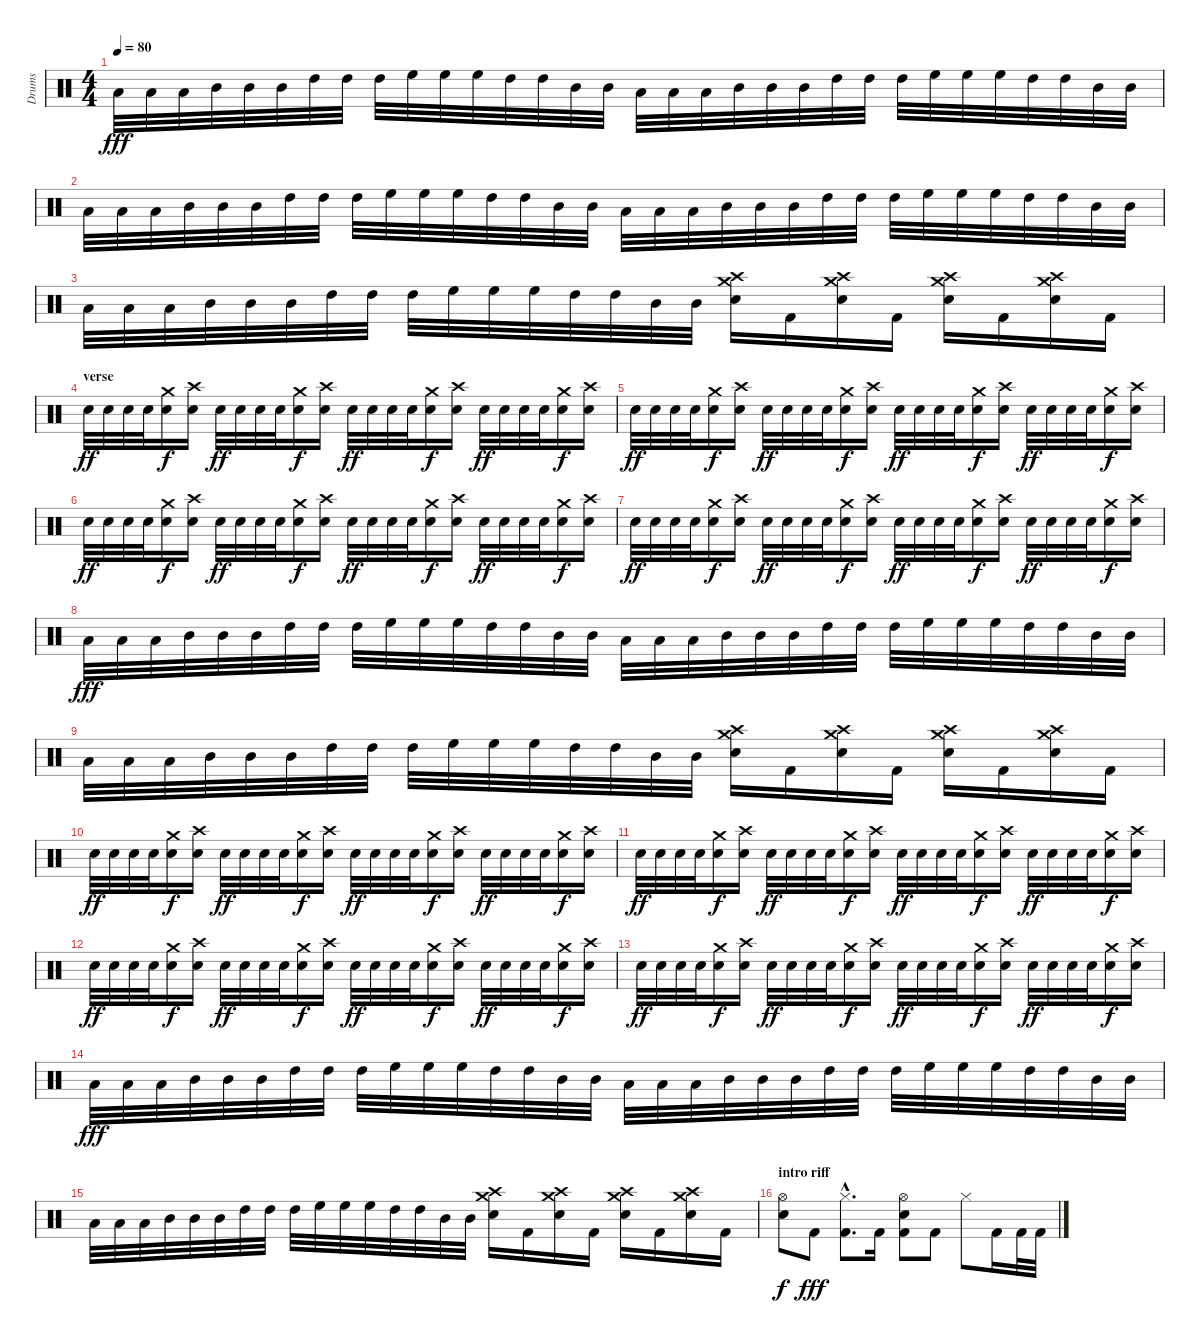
\track ("Drums" "Drums") {instrument percussion}
\staff {score}
\articulation defaults
\ts (4 4)
\tempo 80
\clef neutral
\ks c "Low Tom (hit)".32{dy fff} "Low Tom (hit)".32 "Low Tom (hit)".32 "Mid Tom (hit)".32 "Mid Tom (hit)".32 "Mid Tom (hit)".32 "High Tom (hit)".32 "High Tom (hit)".32 "High Tom (hit)".32 "High Floor Tom (hit)".32 "High Floor Tom (hit)".32 "High Floor Tom (hit)".32 "High Tom (hit)".32 "High Tom (hit)".32 "Mid Tom (hit)".32 "Mid Tom (hit)".32 "Low Tom (hit)".32 "Low Tom (hit)".32 "Low Tom (hit)".32 "Mid Tom (hit)".32 "Mid Tom (hit)".32 "Mid Tom (hit)".32 "High Tom (hit)".32 "High Tom (hit)".32 "High Tom (hit)".32 "High Floor Tom (hit)".32 "High Floor Tom (hit)".32 "High Floor Tom (hit)".32 "High Tom (hit)".32 "High Tom (hit)".32 "Mid Tom (hit)".32 "Mid Tom (hit)".32
|
"Low Tom (hit)".32 "Low Tom (hit)".32 "Low Tom (hit)".32 "Mid Tom (hit)".32 "Mid Tom (hit)".32 "Mid Tom (hit)".32 "High Tom (hit)".32 "High Tom (hit)".32 "High Tom (hit)".32 "High Floor Tom (hit)".32 "High Floor Tom (hit)".32 "High Floor Tom (hit)".32 "High Tom (hit)".32 "High Tom (hit)".32 "Mid Tom (hit)".32 "Mid Tom (hit)".32 "Low Tom (hit)".32 "Low Tom (hit)".32 "Low Tom (hit)".32 "Mid Tom (hit)".32 "Mid Tom (hit)".32 "Mid Tom (hit)".32 "High Tom (hit)".32 "High Tom (hit)".32 "High Tom (hit)".32 "High Floor Tom (hit)".32 "High Floor Tom (hit)".32 "High Floor Tom (hit)".32 "High Tom (hit)".32 "High Tom (hit)".32 "Mid Tom (hit)".32 "Mid Tom (hit)".32 |
"Low Tom (hit)".32 "Low Tom (hit)".32 "Low Tom (hit)".32 "Mid Tom (hit)".32 "Mid Tom (hit)".32 "Mid Tom (hit)".32 "High Tom (hit)".32 "High Tom (hit)".32 "High Tom (hit)".32 "High Floor Tom (hit)".32 "High Floor Tom (hit)".32 "High Floor Tom (hit)".32 "High Tom (hit)".32 "High Tom (hit)".32 "Mid Tom (hit)".32 "Mid Tom (hit)".32 ("Crash high (hit)" "Crash medium (hit)" "Electric Snare (hit)").16 "Kick (hit) 2".16 ("Crash high (hit)" "Crash medium (hit)" "Electric Snare (hit)").16 "Kick (hit) 2".16 ("Crash high (hit)" "Crash medium (hit)" "Electric Snare (hit)").16 "Kick (hit) 2".16 ("Crash high (hit)" "Crash medium (hit)" "Electric Snare (hit)").16 "Kick (hit) 2".16 |
\section ("" "verse")
"Electric Snare (hit)".32{dy ff} "Electric Snare (hit)".32 "Electric Snare (hit)".32 "Electric Snare (hit)".32 ("Snare (hit) 2" "Crash medium (hit)").16{dy f} ("Snare (hit) 2" "Crash high (hit)").16 "Electric Snare (hit)".32{dy ff} "Electric Snare (hit)".32 "Electric Snare (hit)".32 "Electric Snare (hit)".32 ("Snare (hit) 2" "Crash medium (hit)").16{dy f} ("Snare (hit) 2" "Crash high (hit)").16 "Electric Snare (hit)".32{dy ff} "Electric Snare (hit)".32 "Electric Snare (hit)".32 "Electric Snare (hit)".32 ("Snare (hit) 2" "Crash medium (hit)").16{dy f} ("Snare (hit) 2" "Crash high (hit)").16 "Electric Snare (hit)".32{dy ff} "Electric Snare (hit)".32 "Electric Snare (hit)".32 "Electric Snare (hit)".32 ("Snare (hit) 2" "Crash medium (hit)").16{dy f} ("Snare (hit) 2" "Crash high (hit)").16 |
"Electric Snare (hit)".32{dy ff} "Electric Snare (hit)".32 "Electric Snare (hit)".32 "Electric Snare (hit)".32 ("Snare (hit) 2" "Crash medium (hit)").16{dy f} ("Snare (hit) 2" "Crash high (hit)").16 "Electric Snare (hit)".32{dy ff} "Electric Snare (hit)".32 "Electric Snare (hit)".32 "Electric Snare (hit)".32 ("Snare (hit) 2" "Crash medium (hit)").16{dy f} ("Snare (hit) 2" "Crash high (hit)").16 "Electric Snare (hit)".32{dy ff} "Electric Snare (hit)".32 "Electric Snare (hit)".32 "Electric Snare (hit)".32 ("Snare (hit) 2" "Crash medium (hit)").16{dy f} ("Snare (hit) 2" "Crash high (hit)").16 "Electric Snare (hit)".32{dy ff} "Electric Snare (hit)".32 "Electric Snare (hit)".32 "Electric Snare (hit)".32 ("Snare (hit) 2" "Crash medium (hit)").16{dy f} ("Snare (hit) 2" "Crash high (hit)").16 |
"Electric Snare (hit)".32{dy ff} "Electric Snare (hit)".32 "Electric Snare (hit)".32 "Electric Snare (hit)".32 ("Snare (hit) 2" "Crash medium (hit)").16{dy f} ("Snare (hit) 2" "Crash high (hit)").16 "Electric Snare (hit)".32{dy ff} "Electric Snare (hit)".32 "Electric Snare (hit)".32 "Electric Snare (hit)".32 ("Snare (hit) 2" "Crash medium (hit)").16{dy f} ("Snare (hit) 2" "Crash high (hit)").16 "Electric Snare (hit)".32{dy ff} "Electric Snare (hit)".32 "Electric Snare (hit)".32 "Electric Snare (hit)".32 ("Snare (hit) 2" "Crash medium (hit)").16{dy f} ("Snare (hit) 2" "Crash high (hit)").16 "Electric Snare (hit)".32{dy ff} "Electric Snare (hit)".32 "Electric Snare (hit)".32 "Electric Snare (hit)".32 ("Snare (hit) 2" "Crash medium (hit)").16{dy f} ("Snare (hit) 2" "Crash high (hit)").16 |
"Electric Snare (hit)".32{dy ff} "Electric Snare (hit)".32 "Electric Snare (hit)".32 "Electric Snare (hit)".32 ("Snare (hit) 2" "Crash medium (hit)").16{dy f} ("Snare (hit) 2" "Crash high (hit)").16 "Electric Snare (hit)".32{dy ff} "Electric Snare (hit)".32 "Electric Snare (hit)".32 "Electric Snare (hit)".32 ("Snare (hit) 2" "Crash medium (hit)").16{dy f} ("Snare (hit) 2" "Crash high (hit)").16 "Electric Snare (hit)".32{dy ff} "Electric Snare (hit)".32 "Electric Snare (hit)".32 "Electric Snare (hit)".32 ("Snare (hit) 2" "Crash medium (hit)").16{dy f} ("Snare (hit) 2" "Crash high (hit)").16 "Electric Snare (hit)".32{dy ff} "Electric Snare (hit)".32 "Electric Snare (hit)".32 "Electric Snare (hit)".32 ("Snare (hit) 2" "Crash medium (hit)").16{dy f} ("Snare (hit) 2" "Crash high (hit)").16 |
"Low Tom (hit)".32{dy fff} "Low Tom (hit)".32 "Low Tom (hit)".32 "Mid Tom (hit)".32 "Mid Tom (hit)".32 "Mid Tom (hit)".32 "High Tom (hit)".32 "High Tom (hit)".32 "High Tom (hit)".32 "High Floor Tom (hit)".32 "High Floor Tom (hit)".32 "High Floor Tom (hit)".32 "High Tom (hit)".32 "High Tom (hit)".32 "Mid Tom (hit)".32 "Mid Tom (hit)".32 "Low Tom (hit)".32 "Low Tom (hit)".32 "Low Tom (hit)".32 "Mid Tom (hit)".32 "Mid Tom (hit)".32 "Mid Tom (hit)".32 "High Tom (hit)".32 "High Tom (hit)".32 "High Tom (hit)".32 "High Floor Tom (hit)".32 "High Floor Tom (hit)".32 "High Floor Tom (hit)".32 "High Tom (hit)".32 "High Tom (hit)".32 "Mid Tom (hit)".32 "Mid Tom (hit)".32 |
"Low Tom (hit)".32 "Low Tom (hit)".32 "Low Tom (hit)".32 "Mid Tom (hit)".32 "Mid Tom (hit)".32 "Mid Tom (hit)".32 "High Tom (hit)".32 "High Tom (hit)".32 "High Tom (hit)".32 "High Floor Tom (hit)".32 "High Floor Tom (hit)".32 "High Floor Tom (hit)".32 "High Tom (hit)".32 "High Tom (hit)".32 "Mid Tom (hit)".32 "Mid Tom (hit)".32 ("Crash high (hit)" "Crash medium (hit)" "Electric Snare (hit)").16 "Kick (hit) 2".16 ("Crash high (hit)" "Crash medium (hit)" "Electric Snare (hit)").16 "Kick (hit) 2".16 ("Crash high (hit)" "Crash medium (hit)" "Electric Snare (hit)").16 "Kick (hit) 2".16 ("Crash high (hit)" "Crash medium (hit)" "Electric Snare (hit)").16 "Kick (hit) 2".16 |
"Electric Snare (hit)".32{dy ff} "Electric Snare (hit)".32 "Electric Snare (hit)".32 "Electric Snare (hit)".32 ("Snare (hit) 2" "Crash medium (hit)").16{dy f} ("Snare (hit) 2" "Crash high (hit)").16 "Electric Snare (hit)".32{dy ff} "Electric Snare (hit)".32 "Electric Snare (hit)".32 "Electric Snare (hit)".32 ("Snare (hit) 2" "Crash medium (hit)").16{dy f} ("Snare (hit) 2" "Crash high (hit)").16 "Electric Snare (hit)".32{dy ff} "Electric Snare (hit)".32 "Electric Snare (hit)".32 "Electric Snare (hit)".32 ("Snare (hit) 2" "Crash medium (hit)").16{dy f} ("Snare (hit) 2" "Crash high (hit)").16 "Electric Snare (hit)".32{dy ff} "Electric Snare (hit)".32 "Electric Snare (hit)".32 "Electric Snare (hit)".32 ("Snare (hit) 2" "Crash medium (hit)").16{dy f} ("Snare (hit) 2" "Crash high (hit)").16 |
"Electric Snare (hit)".32{dy ff} "Electric Snare (hit)".32 "Electric Snare (hit)".32 "Electric Snare (hit)".32 ("Snare (hit) 2" "Crash medium (hit)").16{dy f} ("Snare (hit) 2" "Crash high (hit)").16 "Electric Snare (hit)".32{dy ff} "Electric Snare (hit)".32 "Electric Snare (hit)".32 "Electric Snare (hit)".32 ("Snare (hit) 2" "Crash medium (hit)").16{dy f} ("Snare (hit) 2" "Crash high (hit)").16 "Electric Snare (hit)".32{dy ff} "Electric Snare (hit)".32 "Electric Snare (hit)".32 "Electric Snare (hit)".32 ("Snare (hit) 2" "Crash medium (hit)").16{dy f} ("Snare (hit) 2" "Crash high (hit)").16 "Electric Snare (hit)".32{dy ff} "Electric Snare (hit)".32 "Electric Snare (hit)".32 "Electric Snare (hit)".32 ("Snare (hit) 2" "Crash medium (hit)").16{dy f} ("Snare (hit) 2" "Crash high (hit)").16 |
"Electric Snare (hit)".32{dy ff} "Electric Snare (hit)".32 "Electric Snare (hit)".32 "Electric Snare (hit)".32 ("Snare (hit) 2" "Crash medium (hit)").16{dy f} ("Snare (hit) 2" "Crash high (hit)").16 "Electric Snare (hit)".32{dy ff} "Electric Snare (hit)".32 "Electric Snare (hit)".32 "Electric Snare (hit)".32 ("Snare (hit) 2" "Crash medium (hit)").16{dy f} ("Snare (hit) 2" "Crash high (hit)").16 "Electric Snare (hit)".32{dy ff} "Electric Snare (hit)".32 "Electric Snare (hit)".32 "Electric Snare (hit)".32 ("Snare (hit) 2" "Crash medium (hit)").16{dy f} ("Snare (hit) 2" "Crash high (hit)").16 "Electric Snare (hit)".32{dy ff} "Electric Snare (hit)".32 "Electric Snare (hit)".32 "Electric Snare (hit)".32 ("Snare (hit) 2" "Crash medium (hit)").16{dy f} ("Snare (hit) 2" "Crash high (hit)").16 |
"Electric Snare (hit)".32{dy ff} "Electric Snare (hit)".32 "Electric Snare (hit)".32 "Electric Snare (hit)".32 ("Snare (hit) 2" "Crash medium (hit)").16{dy f} ("Snare (hit) 2" "Crash high (hit)").16 "Electric Snare (hit)".32{dy ff} "Electric Snare (hit)".32 "Electric Snare (hit)".32 "Electric Snare (hit)".32 ("Snare (hit) 2" "Crash medium (hit)").16{dy f} ("Snare (hit) 2" "Crash high (hit)").16 "Electric Snare (hit)".32{dy ff} "Electric Snare (hit)".32 "Electric Snare (hit)".32 "Electric Snare (hit)".32 ("Snare (hit) 2" "Crash medium (hit)").16{dy f} ("Snare (hit) 2" "Crash high (hit)").16 "Electric Snare (hit)".32{dy ff} "Electric Snare (hit)".32 "Electric Snare (hit)".32 "Electric Snare (hit)".32 ("Snare (hit) 2" "Crash medium (hit)").16{dy f} ("Snare (hit) 2" "Crash high (hit)").16 |
"Low Tom (hit)".32{dy fff} "Low Tom (hit)".32 "Low Tom (hit)".32 "Mid Tom (hit)".32 "Mid Tom (hit)".32 "Mid Tom (hit)".32 "High Tom (hit)".32 "High Tom (hit)".32 "High Tom (hit)".32 "High Floor Tom (hit)".32 "High Floor Tom (hit)".32 "High Floor Tom (hit)".32 "High Tom (hit)".32 "High Tom (hit)".32 "Mid Tom (hit)".32 "Mid Tom (hit)".32 "Low Tom (hit)".32 "Low Tom (hit)".32 "Low Tom (hit)".32 "Mid Tom (hit)".32 "Mid Tom (hit)".32 "Mid Tom (hit)".32 "High Tom (hit)".32 "High Tom (hit)".32 "High Tom (hit)".32 "High Floor Tom (hit)".32 "High Floor Tom (hit)".32 "High Floor Tom (hit)".32 "High Tom (hit)".32 "High Tom (hit)".32 "Mid Tom (hit)".32 "Mid Tom (hit)".32 |
"Low Tom (hit)".32 "Low Tom (hit)".32 "Low Tom (hit)".32 "Mid Tom (hit)".32 "Mid Tom (hit)".32 "Mid Tom (hit)".32 "High Tom (hit)".32 "High Tom (hit)".32 "High Tom (hit)".32 "High Floor Tom (hit)".32 "High Floor Tom (hit)".32 "High Floor Tom (hit)".32 "High Tom (hit)".32 "High Tom (hit)".32 "Mid Tom (hit)".32 "Mid Tom (hit)".32 ("Crash high (hit)" "Crash medium (hit)" "Electric Snare (hit)").16 "Kick (hit) 2".16 ("Crash high (hit)" "Crash medium (hit)" "Electric Snare (hit)").16 "Kick (hit) 2".16 ("Crash high (hit)" "Crash medium (hit)" "Electric Snare (hit)").16 "Kick (hit) 2".16 ("Crash high (hit)" "Crash medium (hit)" "Electric Snare (hit)").16 "Kick (hit) 2".16 |
\section ("" "intro riff")
("Hi-Hat (open)" "Electric Snare (hit)").8{dy f} "Kick (hit) 2".8{dy fff} ("Hi-Hat (closed)"{hac} "Kick (hit) 2"{hac}).8{d} "Kick (hit) 2".16 ("Hi-Hat (open)" "Kick (hit) 2" "Snare (hit) 2").8 "Kick (hit) 2".8 "Hi-Hat (closed)".8 "Kick (hit) 2".16 "Kick (hit) 2".32 "Kick (hit) 2".32
